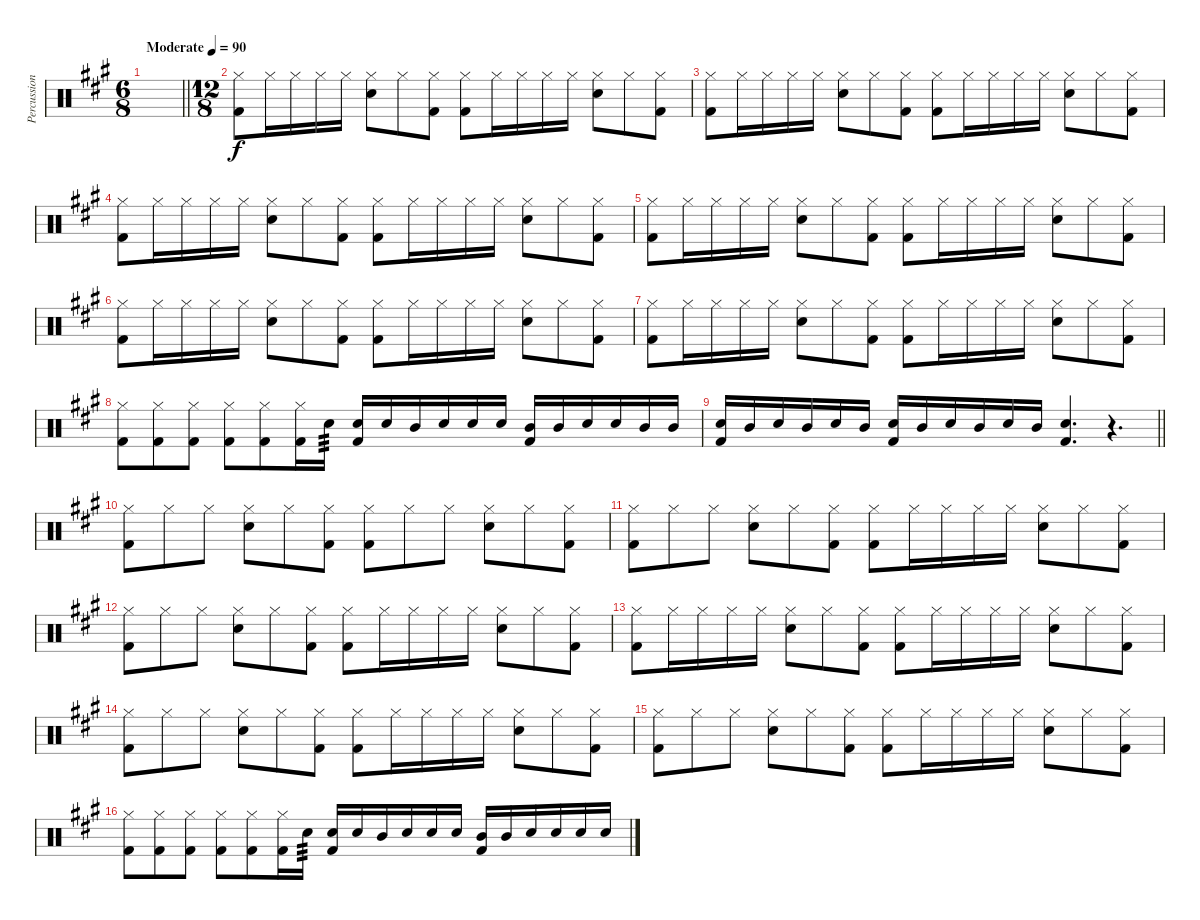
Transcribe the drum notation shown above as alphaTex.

\track ("Percussion" "Percussion") {instrument percussion}
\staff {score}
\articulation defaults
\ts (6 8)
\tempo (90 "Moderate")
\clef neutral
\barLineRight lightlight
\ks a
|
\ts (12 8)
("Hi-Hat (closed)" "Kick (hit) 2").8 "Hi-Hat (closed)".16 "Hi-Hat (closed)".16 "Hi-Hat (closed)".16 "Hi-Hat (closed)".16 ("Hi-Hat (closed)" "Snare (hit) 2").8 "Hi-Hat (closed)".8 ("Hi-Hat (closed)" "Kick (hit) 2").8 ("Hi-Hat (closed)" "Kick (hit) 2").8 "Hi-Hat (closed)".16 "Hi-Hat (closed)".16 "Hi-Hat (closed)".16 "Hi-Hat (closed)".16 ("Hi-Hat (closed)" "Snare (hit) 2").8 "Hi-Hat (closed)".8 ("Hi-Hat (closed)" "Kick (hit) 2").8 |
("Hi-Hat (closed)" "Kick (hit) 2").8 "Hi-Hat (closed)".16 "Hi-Hat (closed)".16 "Hi-Hat (closed)".16 "Hi-Hat (closed)".16 ("Hi-Hat (closed)" "Snare (hit) 2").8 "Hi-Hat (closed)".8 ("Hi-Hat (closed)" "Kick (hit) 2").8 ("Hi-Hat (closed)" "Kick (hit) 2").8 "Hi-Hat (closed)".16 "Hi-Hat (closed)".16 "Hi-Hat (closed)".16 "Hi-Hat (closed)".16 ("Hi-Hat (closed)" "Snare (hit) 2").8 "Hi-Hat (closed)".8 ("Hi-Hat (closed)" "Kick (hit) 2").8 |
("Hi-Hat (closed)" "Kick (hit) 2").8 "Hi-Hat (closed)".16 "Hi-Hat (closed)".16 "Hi-Hat (closed)".16 "Hi-Hat (closed)".16 ("Hi-Hat (closed)" "Snare (hit) 2").8 "Hi-Hat (closed)".8 ("Hi-Hat (closed)" "Kick (hit) 2").8 ("Hi-Hat (closed)" "Kick (hit) 2").8 "Hi-Hat (closed)".16 "Hi-Hat (closed)".16 "Hi-Hat (closed)".16 "Hi-Hat (closed)".16 ("Hi-Hat (closed)" "Snare (hit) 2").8 "Hi-Hat (closed)".8 ("Hi-Hat (closed)" "Kick (hit) 2").8 |
("Hi-Hat (closed)" "Kick (hit) 2").8 "Hi-Hat (closed)".16 "Hi-Hat (closed)".16 "Hi-Hat (closed)".16 "Hi-Hat (closed)".16 ("Hi-Hat (closed)" "Snare (hit) 2").8 "Hi-Hat (closed)".8 ("Hi-Hat (closed)" "Kick (hit) 2").8 ("Hi-Hat (closed)" "Kick (hit) 2").8 "Hi-Hat (closed)".16 "Hi-Hat (closed)".16 "Hi-Hat (closed)".16 "Hi-Hat (closed)".16 ("Hi-Hat (closed)" "Snare (hit) 2").8 "Hi-Hat (closed)".8 ("Hi-Hat (closed)" "Kick (hit) 2").8 |
("Hi-Hat (closed)" "Kick (hit) 2").8 "Hi-Hat (closed)".16 "Hi-Hat (closed)".16 "Hi-Hat (closed)".16 "Hi-Hat (closed)".16 ("Hi-Hat (closed)" "Snare (hit) 2").8 "Hi-Hat (closed)".8 ("Hi-Hat (closed)" "Kick (hit) 2").8 ("Hi-Hat (closed)" "Kick (hit) 2").8 "Hi-Hat (closed)".16 "Hi-Hat (closed)".16 "Hi-Hat (closed)".16 "Hi-Hat (closed)".16 ("Hi-Hat (closed)" "Snare (hit) 2").8 "Hi-Hat (closed)".8 ("Hi-Hat (closed)" "Kick (hit) 2").8 |
("Hi-Hat (closed)" "Kick (hit) 2").8 "Hi-Hat (closed)".16 "Hi-Hat (closed)".16 "Hi-Hat (closed)".16 "Hi-Hat (closed)".16 ("Hi-Hat (closed)" "Snare (hit) 2").8 "Hi-Hat (closed)".8 ("Hi-Hat (closed)" "Kick (hit) 2").8 ("Hi-Hat (closed)" "Kick (hit) 2").8 "Hi-Hat (closed)".16 "Hi-Hat (closed)".16 "Hi-Hat (closed)".16 "Hi-Hat (closed)".16 ("Hi-Hat (closed)" "Snare (hit) 2").8 "Hi-Hat (closed)".8 ("Hi-Hat (closed)" "Kick (hit) 2").8 |
("Hi-Hat (closed)" "Kick (hit) 2").8 ("Hi-Hat (closed)" "Kick (hit) 2").8 ("Hi-Hat (closed)" "Kick (hit) 2").8 ("Hi-Hat (closed)" "Kick (hit) 2").8 ("Hi-Hat (closed)" "Kick (hit) 2").8 ("Hi-Hat (closed)" "Kick (hit) 2").16 "Snare (hit) 2".16{tp 3} ("Snare (hit) 2" "Kick (hit) 2").16 "Snare (hit) 2".16 "Mid Tom (hit)".16 "Snare (hit) 2".16 "Snare (hit) 2".16 "Snare (hit) 2".16 ("Mid Tom (hit)" "Kick (hit) 2").16 "Mid Tom (hit)".16 "Snare (hit) 2".16 "Snare (hit) 2".16 "Mid Tom (hit)".16 "Mid Tom (hit)".16 |
\barLineRight lightlight
("Snare (hit) 2" "Kick (hit) 2").16 "Mid Tom (hit)".16 "Snare (hit) 2".16 "Mid Tom (hit)".16 "Snare (hit) 2".16 "Mid Tom (hit)".16 ("Snare (hit) 2" "Kick (hit) 2").16 "Mid Tom (hit)".16 "Snare (hit) 2".16 "Mid Tom (hit)".16 "Snare (hit) 2".16 "Mid Tom (hit)".16 ("Snare (hit) 2" "Kick (hit) 2").4{d} r.4{d} |
("Hi-Hat (closed)" "Kick (hit) 2").8 "Hi-Hat (closed)".8 "Hi-Hat (closed)".8 ("Hi-Hat (closed)" "Snare (hit) 2").8 "Hi-Hat (closed)".8 ("Hi-Hat (closed)" "Kick (hit) 2").8 ("Hi-Hat (closed)" "Kick (hit) 2").8 "Hi-Hat (closed)".8 "Hi-Hat (closed)".8 ("Hi-Hat (closed)" "Snare (hit) 2").8 "Hi-Hat (closed)".8 ("Hi-Hat (closed)" "Kick (hit) 2").8 |
("Hi-Hat (closed)" "Kick (hit) 2").8 "Hi-Hat (closed)".8 "Hi-Hat (closed)".8 ("Hi-Hat (closed)" "Snare (hit) 2").8 "Hi-Hat (closed)".8 ("Hi-Hat (closed)" "Kick (hit) 2").8 ("Hi-Hat (closed)" "Kick (hit) 2").8 "Hi-Hat (closed)".16 "Hi-Hat (closed)".16 "Hi-Hat (closed)".16 "Hi-Hat (closed)".16 ("Hi-Hat (closed)" "Snare (hit) 2").8 "Hi-Hat (closed)".8 ("Hi-Hat (closed)" "Kick (hit) 2").8 |
("Hi-Hat (closed)" "Kick (hit) 2").8 "Hi-Hat (closed)".8 "Hi-Hat (closed)".8 ("Hi-Hat (closed)" "Snare (hit) 2").8 "Hi-Hat (closed)".8 ("Hi-Hat (closed)" "Kick (hit) 2").8 ("Hi-Hat (closed)" "Kick (hit) 2").8 "Hi-Hat (closed)".16 "Hi-Hat (closed)".16 "Hi-Hat (closed)".16 "Hi-Hat (closed)".16 ("Hi-Hat (closed)" "Snare (hit) 2").8 "Hi-Hat (closed)".8 ("Hi-Hat (closed)" "Kick (hit) 2").8 |
("Hi-Hat (closed)" "Kick (hit) 2").8 "Hi-Hat (closed)".16 "Hi-Hat (closed)".16 "Hi-Hat (closed)".16 "Hi-Hat (closed)".16 ("Hi-Hat (closed)" "Snare (hit) 2").8 "Hi-Hat (closed)".8 ("Hi-Hat (closed)" "Kick (hit) 2").8 ("Hi-Hat (closed)" "Kick (hit) 2").8 "Hi-Hat (closed)".16 "Hi-Hat (closed)".16 "Hi-Hat (closed)".16 "Hi-Hat (closed)".16 ("Hi-Hat (closed)" "Snare (hit) 2").8 "Hi-Hat (closed)".8 ("Hi-Hat (closed)" "Kick (hit) 2").8 |
("Hi-Hat (closed)" "Kick (hit) 2").8 "Hi-Hat (closed)".8 "Hi-Hat (closed)".8 ("Hi-Hat (closed)" "Snare (hit) 2").8 "Hi-Hat (closed)".8 ("Hi-Hat (closed)" "Kick (hit) 2").8 ("Hi-Hat (closed)" "Kick (hit) 2").8 "Hi-Hat (closed)".16 "Hi-Hat (closed)".16 "Hi-Hat (closed)".16 "Hi-Hat (closed)".16 ("Hi-Hat (closed)" "Snare (hit) 2").8 "Hi-Hat (closed)".8 ("Hi-Hat (closed)" "Kick (hit) 2").8 |
("Hi-Hat (closed)" "Kick (hit) 2").8 "Hi-Hat (closed)".8 "Hi-Hat (closed)".8 ("Hi-Hat (closed)" "Snare (hit) 2").8 "Hi-Hat (closed)".8 ("Hi-Hat (closed)" "Kick (hit) 2").8 ("Hi-Hat (closed)" "Kick (hit) 2").8 "Hi-Hat (closed)".16 "Hi-Hat (closed)".16 "Hi-Hat (closed)".16 "Hi-Hat (closed)".16 ("Hi-Hat (closed)" "Snare (hit) 2").8 "Hi-Hat (closed)".8 ("Hi-Hat (closed)" "Kick (hit) 2").8 |
("Hi-Hat (closed)" "Kick (hit) 2").8 ("Hi-Hat (closed)" "Kick (hit) 2").8 ("Hi-Hat (closed)" "Kick (hit) 2").8 ("Hi-Hat (closed)" "Kick (hit) 2").8 ("Hi-Hat (closed)" "Kick (hit) 2").8 ("Hi-Hat (closed)" "Kick (hit) 2").16 "Snare (hit) 2".16{tp 3} ("Snare (hit) 2" "Kick (hit) 2").16 "Snare (hit) 2".16 "Mid Tom (hit)".16 "Snare (hit) 2".16 "Snare (hit) 2".16 "Snare (hit) 2".16 ("Mid Tom (hit)" "Kick (hit) 2").16 "Mid Tom (hit)".16 "Snare (hit) 2".16 "Snare (hit) 2".16 "Snare (hit) 2".16 "Snare (hit) 2".16
